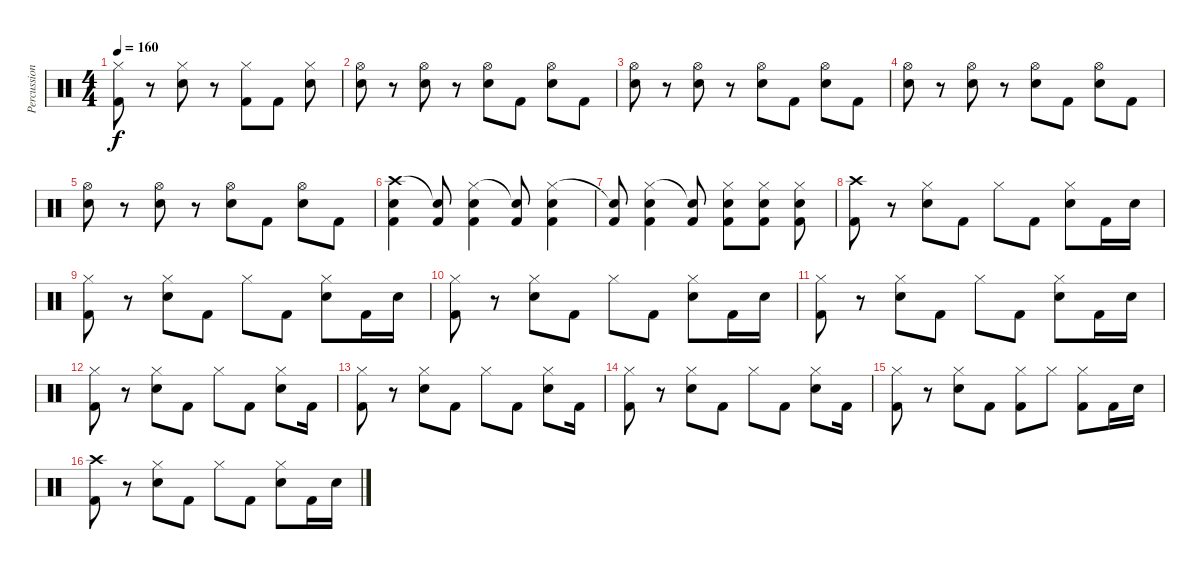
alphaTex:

\track ("Percussion" "Percussion") {instrument percussion}
\staff {score}
\articulation defaults
\ts (4 4)
\tempo 160
\clef neutral
\ks c
("Hi-Hat (closed)" "Kick (hit) 2").8{dy f} r.8 ("Hi-Hat (closed)" "Electric Snare (hit)").8 r.8 ("Hi-Hat (closed)" "Kick (hit) 2").8 "Kick (hit) 2".8 ("Hi-Hat (closed)" "Electric Snare (hit)").8 |
("Hi-Hat (open)" "Electric Snare (hit)").8 r.8 ("Hi-Hat (open)" "Electric Snare (hit)").8 r.8 ("Hi-Hat (open)" "Electric Snare (hit)").8 "Kick (hit) 2".8 ("Hi-Hat (open)" "Electric Snare (hit)").8 "Kick (hit) 2".8 |
("Hi-Hat (open)" "Electric Snare (hit)").8 r.8 ("Hi-Hat (open)" "Electric Snare (hit)").8 r.8 ("Hi-Hat (open)" "Electric Snare (hit)").8 "Kick (hit) 2".8 ("Hi-Hat (open)" "Electric Snare (hit)").8 "Kick (hit) 2".8 |
("Hi-Hat (open)" "Electric Snare (hit)").8 r.8 ("Hi-Hat (open)" "Electric Snare (hit)").8 r.8 ("Hi-Hat (open)" "Electric Snare (hit)").8 "Kick (hit) 2".8 ("Hi-Hat (open)" "Electric Snare (hit)").8 "Kick (hit) 2".8 |
("Hi-Hat (open)" "Electric Snare (hit)").8 r.8 ("Hi-Hat (open)" "Electric Snare (hit)").8 r.8 ("Hi-Hat (open)" "Electric Snare (hit)").8 "Kick (hit) 2".8 ("Hi-Hat (open)" "Electric Snare (hit)").8 "Kick (hit) 2".8 |
("Crash high (hit)" "Electric Snare (hit)" "Kick (hit) 2").4 ("Snare (hit)"{t} "Kick (hit) 2").8 ("Hi-Hat (closed)" "Electric Snare (hit)" "Kick (hit) 2").4 ("Snare (hit)"{t} "Kick (hit) 2").8 ("Hi-Hat (closed)" "Electric Snare (hit)" "Kick (hit) 2").4 |
("Snare (hit)"{t} "Kick (hit) 2").8 ("Hi-Hat (closed)" "Electric Snare (hit)" "Kick (hit) 2").4 ("Snare (hit)"{t} "Kick (hit) 2").8 ("Hi-Hat (closed)" "Electric Snare (hit)" "Kick (hit) 2").8 ("Hi-Hat (closed)" "Electric Snare (hit)" "Kick (hit) 2").8 ("Hi-Hat (closed)" "Electric Snare (hit)" "Kick (hit) 2").8 |
("Crash high (hit)" "Kick (hit) 2").8 r.8 ("Hi-Hat (closed)" "Electric Snare (hit)").8 "Kick (hit) 2".8 "Hi-Hat (closed)".8 "Kick (hit) 2".8 ("Hi-Hat (closed)" "Electric Snare (hit)").8 "Kick (hit) 2".16 "Electric Snare (hit)".16 |
("Hi-Hat (closed)" "Kick (hit) 2").8 r.8 ("Hi-Hat (closed)" "Electric Snare (hit)").8 "Kick (hit) 2".8 "Hi-Hat (closed)".8 "Kick (hit) 2".8 ("Hi-Hat (closed)" "Electric Snare (hit)").8 "Kick (hit) 2".16 "Electric Snare (hit)".16 |
("Hi-Hat (closed)" "Kick (hit) 2").8 r.8 ("Hi-Hat (closed)" "Electric Snare (hit)").8 "Kick (hit) 2".8 "Hi-Hat (closed)".8 "Kick (hit) 2".8 ("Hi-Hat (closed)" "Electric Snare (hit)").8 "Kick (hit) 2".16 "Electric Snare (hit)".16 |
("Hi-Hat (closed)" "Kick (hit) 2").8 r.8 ("Hi-Hat (closed)" "Electric Snare (hit)").8 "Kick (hit) 2".8 "Hi-Hat (closed)".8 "Kick (hit) 2".8 ("Hi-Hat (closed)" "Electric Snare (hit)").8 "Kick (hit) 2".16 "Electric Snare (hit)".16 |
("Hi-Hat (closed)" "Kick (hit) 2").8 r.8 ("Hi-Hat (closed)" "Electric Snare (hit)").8 "Kick (hit) 2".8 "Hi-Hat (closed)".8 "Kick (hit) 2".8 ("Hi-Hat (closed)" "Electric Snare (hit)").8 "Kick (hit) 2".16 |
("Hi-Hat (closed)" "Kick (hit) 2").8 r.8 ("Hi-Hat (closed)" "Electric Snare (hit)").8 "Kick (hit) 2".8 "Hi-Hat (closed)".8 "Kick (hit) 2".8 ("Hi-Hat (closed)" "Electric Snare (hit)").8 "Kick (hit) 2".16 |
("Hi-Hat (closed)" "Kick (hit) 2").8 r.8 ("Hi-Hat (closed)" "Electric Snare (hit)").8 "Kick (hit) 2".8 "Hi-Hat (closed)".8 "Kick (hit) 2".8 ("Hi-Hat (closed)" "Electric Snare (hit)").8 "Kick (hit) 2".16 |
("Hi-Hat (closed)" "Kick (hit) 2").8 r.8 ("Hi-Hat (closed)" "Electric Snare (hit)").8 "Kick (hit) 2".8 ("Hi-Hat (closed)" "Kick (hit) 2").8 "Hi-Hat (closed)".8 ("Hi-Hat (closed)" "Kick (hit) 2").8 "Kick (hit) 2".16 "Electric Snare (hit)".16 |
("Crash high (hit)" "Kick (hit) 2").8 r.8 ("Hi-Hat (closed)" "Electric Snare (hit)").8 "Kick (hit) 2".8 "Hi-Hat (closed)".8 "Kick (hit) 2".8 ("Hi-Hat (closed)" "Electric Snare (hit)").8 "Kick (hit) 2".16 "Electric Snare (hit)".16
